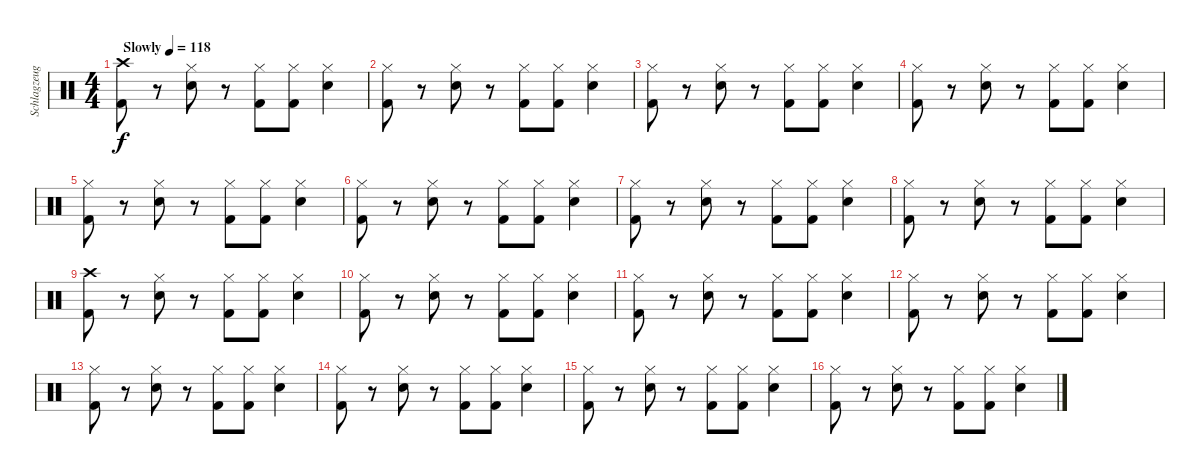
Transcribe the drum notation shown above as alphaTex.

\track ("Schlagzeug" "Schlagzeug") {instrument percussion}
\staff {score}
\articulation defaults
\ts (4 4)
\tempo (118 "Slowly")
\clef neutral
\ks c
("Crash high (hit)" "Kick (hit) 2").8{dy f} r.8 ("Hi-Hat (closed)" "Electric Snare (hit)").8 r.8 ("Hi-Hat (closed)" "Kick (hit) 2").8 ("Hi-Hat (closed)" "Kick (hit) 2").8 ("Hi-Hat (closed)" "Electric Snare (hit)").4 |
("Hi-Hat (closed)" "Kick (hit) 2").8 r.8 ("Hi-Hat (closed)" "Electric Snare (hit)").8 r.8 ("Hi-Hat (closed)" "Kick (hit) 2").8 ("Hi-Hat (closed)" "Kick (hit) 2").8 ("Hi-Hat (closed)" "Electric Snare (hit)").4 |
("Hi-Hat (closed)" "Kick (hit) 2").8 r.8 ("Hi-Hat (closed)" "Electric Snare (hit)").8 r.8 ("Hi-Hat (closed)" "Kick (hit) 2").8 ("Hi-Hat (closed)" "Kick (hit) 2").8 ("Hi-Hat (closed)" "Electric Snare (hit)").4 |
("Hi-Hat (closed)" "Kick (hit) 2").8 r.8 ("Hi-Hat (closed)" "Electric Snare (hit)").8 r.8 ("Hi-Hat (closed)" "Kick (hit) 2").8 ("Hi-Hat (closed)" "Kick (hit) 2").8 ("Hi-Hat (closed)" "Electric Snare (hit)").4 |
("Hi-Hat (closed)" "Kick (hit) 2").8 r.8 ("Hi-Hat (closed)" "Electric Snare (hit)").8 r.8 ("Hi-Hat (closed)" "Kick (hit) 2").8 ("Hi-Hat (closed)" "Kick (hit) 2").8 ("Hi-Hat (closed)" "Electric Snare (hit)").4 |
("Hi-Hat (closed)" "Kick (hit) 2").8 r.8 ("Hi-Hat (closed)" "Electric Snare (hit)").8 r.8 ("Hi-Hat (closed)" "Kick (hit) 2").8 ("Hi-Hat (closed)" "Kick (hit) 2").8 ("Hi-Hat (closed)" "Electric Snare (hit)").4 |
("Hi-Hat (closed)" "Kick (hit) 2").8 r.8 ("Hi-Hat (closed)" "Electric Snare (hit)").8 r.8 ("Hi-Hat (closed)" "Kick (hit) 2").8 ("Hi-Hat (closed)" "Kick (hit) 2").8 ("Hi-Hat (closed)" "Electric Snare (hit)").4 |
("Hi-Hat (closed)" "Kick (hit) 2").8 r.8 ("Hi-Hat (closed)" "Electric Snare (hit)").8 r.8 ("Hi-Hat (closed)" "Kick (hit) 2").8 ("Hi-Hat (closed)" "Kick (hit) 2").8 ("Hi-Hat (closed)" "Electric Snare (hit)").4 |
("Crash high (hit)" "Kick (hit) 2").8 r.8 ("Hi-Hat (closed)" "Electric Snare (hit)").8 r.8 ("Hi-Hat (closed)" "Kick (hit) 2").8 ("Hi-Hat (closed)" "Kick (hit) 2").8 ("Hi-Hat (closed)" "Electric Snare (hit)").4 |
("Hi-Hat (closed)" "Kick (hit) 2").8 r.8 ("Hi-Hat (closed)" "Electric Snare (hit)").8 r.8 ("Hi-Hat (closed)" "Kick (hit) 2").8 ("Hi-Hat (closed)" "Kick (hit) 2").8 ("Hi-Hat (closed)" "Electric Snare (hit)").4 |
("Hi-Hat (closed)" "Kick (hit) 2").8 r.8 ("Hi-Hat (closed)" "Electric Snare (hit)").8 r.8 ("Hi-Hat (closed)" "Kick (hit) 2").8 ("Hi-Hat (closed)" "Kick (hit) 2").8 ("Hi-Hat (closed)" "Electric Snare (hit)").4 |
("Hi-Hat (closed)" "Kick (hit) 2").8 r.8 ("Hi-Hat (closed)" "Electric Snare (hit)").8 r.8 ("Hi-Hat (closed)" "Kick (hit) 2").8 ("Hi-Hat (closed)" "Kick (hit) 2").8 ("Hi-Hat (closed)" "Electric Snare (hit)").4 |
("Hi-Hat (closed)" "Kick (hit) 2").8 r.8 ("Hi-Hat (closed)" "Electric Snare (hit)").8 r.8 ("Hi-Hat (closed)" "Kick (hit) 2").8 ("Hi-Hat (closed)" "Kick (hit) 2").8 ("Hi-Hat (closed)" "Electric Snare (hit)").4 |
("Hi-Hat (closed)" "Kick (hit) 2").8 r.8 ("Hi-Hat (closed)" "Electric Snare (hit)").8 r.8 ("Hi-Hat (closed)" "Kick (hit) 2").8 ("Hi-Hat (closed)" "Kick (hit) 2").8 ("Hi-Hat (closed)" "Electric Snare (hit)").4 |
("Hi-Hat (closed)" "Kick (hit) 2").8 r.8 ("Hi-Hat (closed)" "Electric Snare (hit)").8 r.8 ("Hi-Hat (closed)" "Kick (hit) 2").8 ("Hi-Hat (closed)" "Kick (hit) 2").8 ("Hi-Hat (closed)" "Electric Snare (hit)").4 |
("Hi-Hat (closed)" "Kick (hit) 2").8 r.8 ("Hi-Hat (closed)" "Electric Snare (hit)").8 r.8 ("Hi-Hat (closed)" "Kick (hit) 2").8 ("Hi-Hat (closed)" "Kick (hit) 2").8 ("Hi-Hat (closed)" "Electric Snare (hit)").4
